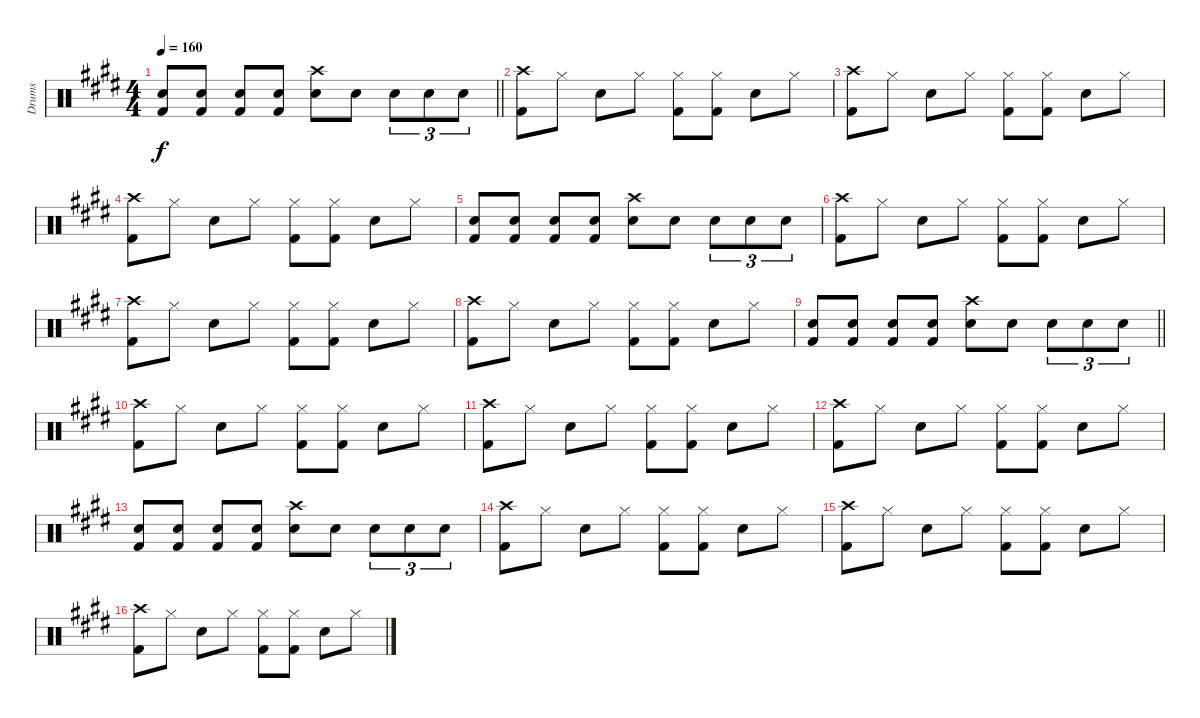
\track ("Drums" "Drums") {instrument percussion}
\staff {score}
\articulation defaults
\ts (4 4)
\tempo 160
\clef neutral
\barLineRight lightlight
\ks e
("Kick (hit) 2" "Snare (hit) 2").8{dy f} ("Kick (hit) 2" "Snare (hit) 2").8 ("Kick (hit) 2" "Snare (hit) 2").8 ("Kick (hit) 2" "Snare (hit) 2").8 ("Crash high (hit)" "Snare (hit) 2").8 "Snare (hit) 2".8 "Snare (hit) 2".8{tu (3 2)} "Snare (hit) 2".8{tu (3 2)} "Snare (hit) 2".8{tu (3 2)} |
("Kick (hit) 2" "Crash high (hit)").8 "Hi-Hat (closed)".8 "Snare (hit) 2".8 "Hi-Hat (closed)".8 ("Kick (hit) 2" "Hi-Hat (closed)").8 ("Kick (hit) 2" "Hi-Hat (closed)").8 "Snare (hit) 2".8 "Hi-Hat (closed)".8 |
("Kick (hit) 2" "Crash high (hit)").8 "Hi-Hat (closed)".8 "Snare (hit) 2".8 "Hi-Hat (closed)".8 ("Kick (hit) 2" "Hi-Hat (closed)").8 ("Kick (hit) 2" "Hi-Hat (closed)").8 "Snare (hit) 2".8 "Hi-Hat (closed)".8 |
("Kick (hit) 2" "Crash high (hit)").8 "Hi-Hat (closed)".8 "Snare (hit) 2".8 "Hi-Hat (closed)".8 ("Kick (hit) 2" "Hi-Hat (closed)").8 ("Kick (hit) 2" "Hi-Hat (closed)").8 "Snare (hit) 2".8 "Hi-Hat (closed)".8 |
("Kick (hit) 2" "Snare (hit) 2").8 ("Kick (hit) 2" "Snare (hit) 2").8 ("Kick (hit) 2" "Snare (hit) 2").8 ("Kick (hit) 2" "Snare (hit) 2").8 ("Crash high (hit)" "Snare (hit) 2").8 "Snare (hit) 2".8 "Snare (hit) 2".8{tu (3 2)} "Snare (hit) 2".8{tu (3 2)} "Snare (hit) 2".8{tu (3 2)} |
("Kick (hit) 2" "Crash high (hit)").8 "Hi-Hat (closed)".8 "Snare (hit) 2".8 "Hi-Hat (closed)".8 ("Kick (hit) 2" "Hi-Hat (closed)").8 ("Kick (hit) 2" "Hi-Hat (closed)").8 "Snare (hit) 2".8 "Hi-Hat (closed)".8 |
("Kick (hit) 2" "Crash high (hit)").8 "Hi-Hat (closed)".8 "Snare (hit) 2".8 "Hi-Hat (closed)".8 ("Kick (hit) 2" "Hi-Hat (closed)").8 ("Kick (hit) 2" "Hi-Hat (closed)").8 "Snare (hit) 2".8 "Hi-Hat (closed)".8 |
("Kick (hit) 2" "Crash high (hit)").8 "Hi-Hat (closed)".8 "Snare (hit) 2".8 "Hi-Hat (closed)".8 ("Kick (hit) 2" "Hi-Hat (closed)").8 ("Kick (hit) 2" "Hi-Hat (closed)").8 "Snare (hit) 2".8 "Hi-Hat (closed)".8 |
\barLineRight lightlight
("Kick (hit) 2" "Snare (hit) 2").8 ("Kick (hit) 2" "Snare (hit) 2").8 ("Kick (hit) 2" "Snare (hit) 2").8 ("Kick (hit) 2" "Snare (hit) 2").8 ("Crash high (hit)" "Snare (hit) 2").8 "Snare (hit) 2".8 "Snare (hit) 2".8{tu (3 2)} "Snare (hit) 2".8{tu (3 2)} "Snare (hit) 2".8{tu (3 2)} |
("Kick (hit) 2" "Crash high (hit)").8 "Hi-Hat (closed)".8 "Snare (hit) 2".8 "Hi-Hat (closed)".8 ("Kick (hit) 2" "Hi-Hat (closed)").8 ("Kick (hit) 2" "Hi-Hat (closed)").8 "Snare (hit) 2".8 "Hi-Hat (closed)".8 |
("Kick (hit) 2" "Crash high (hit)").8 "Hi-Hat (closed)".8 "Snare (hit) 2".8 "Hi-Hat (closed)".8 ("Kick (hit) 2" "Hi-Hat (closed)").8 ("Kick (hit) 2" "Hi-Hat (closed)").8 "Snare (hit) 2".8 "Hi-Hat (closed)".8 |
("Kick (hit) 2" "Crash high (hit)").8 "Hi-Hat (closed)".8 "Snare (hit) 2".8 "Hi-Hat (closed)".8 ("Kick (hit) 2" "Hi-Hat (closed)").8 ("Kick (hit) 2" "Hi-Hat (closed)").8 "Snare (hit) 2".8 "Hi-Hat (closed)".8 |
("Kick (hit) 2" "Snare (hit) 2").8 ("Kick (hit) 2" "Snare (hit) 2").8 ("Kick (hit) 2" "Snare (hit) 2").8 ("Kick (hit) 2" "Snare (hit) 2").8 ("Crash high (hit)" "Snare (hit) 2").8 "Snare (hit) 2".8 "Snare (hit) 2".8{tu (3 2)} "Snare (hit) 2".8{tu (3 2)} "Snare (hit) 2".8{tu (3 2)} |
("Kick (hit) 2" "Crash high (hit)").8 "Hi-Hat (closed)".8 "Snare (hit) 2".8 "Hi-Hat (closed)".8 ("Kick (hit) 2" "Hi-Hat (closed)").8 ("Kick (hit) 2" "Hi-Hat (closed)").8 "Snare (hit) 2".8 "Hi-Hat (closed)".8 |
("Kick (hit) 2" "Crash high (hit)").8 "Hi-Hat (closed)".8 "Snare (hit) 2".8 "Hi-Hat (closed)".8 ("Kick (hit) 2" "Hi-Hat (closed)").8 ("Kick (hit) 2" "Hi-Hat (closed)").8 "Snare (hit) 2".8 "Hi-Hat (closed)".8 |
("Kick (hit) 2" "Crash high (hit)").8 "Hi-Hat (closed)".8 "Snare (hit) 2".8 "Hi-Hat (closed)".8 ("Kick (hit) 2" "Hi-Hat (closed)").8 ("Kick (hit) 2" "Hi-Hat (closed)").8 "Snare (hit) 2".8 "Hi-Hat (closed)".8
